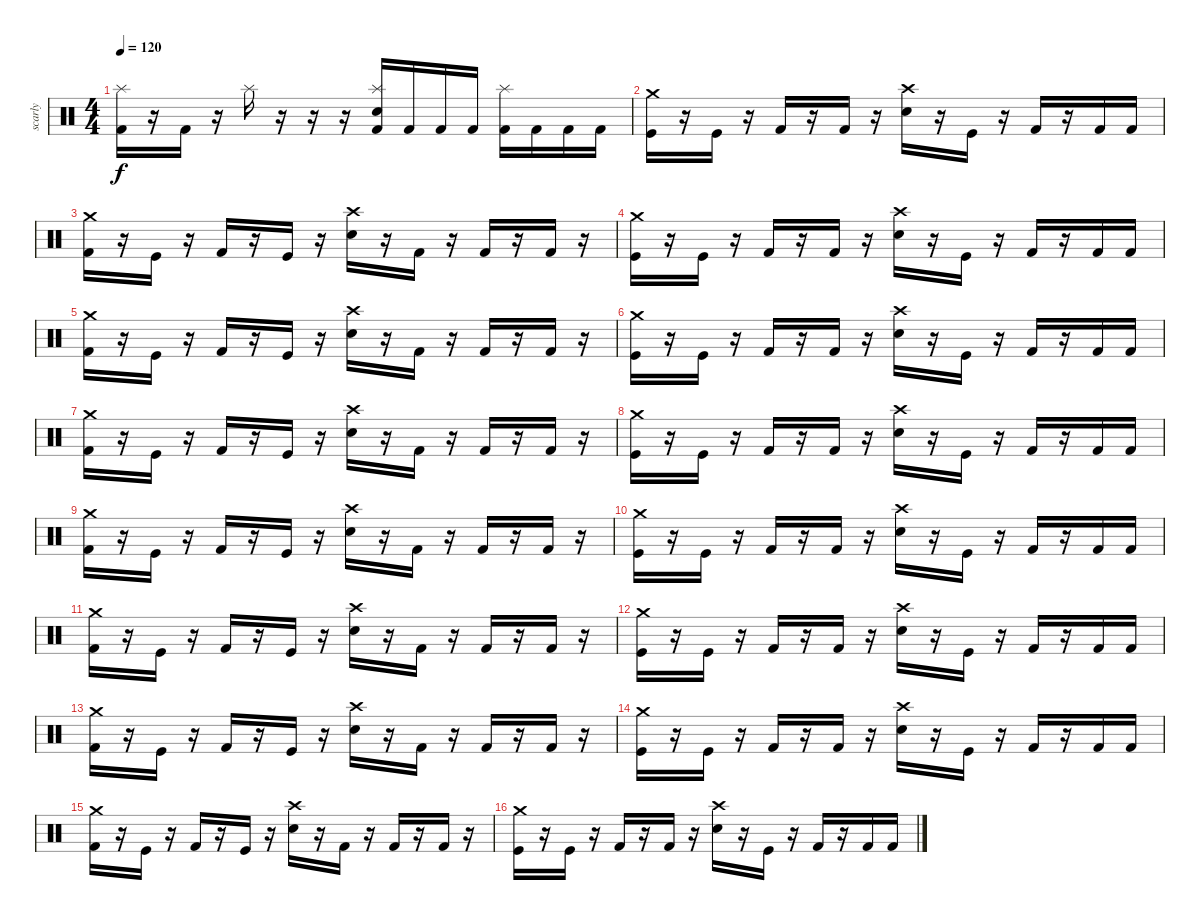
\track ("scarly" "scarly") {instrument percussion}
\staff {score}
\articulation defaults
\ts (4 4)
\tempo 120
\clef neutral
\ks c
("Kick (hit) 2" "Splash (hit)").16{dy f} r.16 "Kick (hit) 2".16 r.16 "Splash (hit)".16 r.16 r.16 r.16 ("Snare (hit) 2" "Kick (hit) 2" "Splash (hit)").16 "Kick (hit) 2".16 "Kick (hit) 2".16 "Kick (hit) 2".16 ("Kick (hit) 2" "Splash (hit)").16 "Kick (hit) 2".16 "Kick (hit) 2".16 "Kick (hit) 2".16 |
("Kick (hit)" "Crash medium (hit)").16 r.16 "Kick (hit)".16 r.16 "Kick (hit) 2".16 r.16 "Kick (hit) 2".16 r.16 ("Snare (hit) 2" "Crash high (hit)").16 r.16 "Kick (hit)".16 r.16 "Kick (hit) 2".16 r.16 "Kick (hit) 2".16 "Kick (hit) 2".16 |
("Kick (hit) 2" "Crash medium (hit)").16 r.16 "Kick (hit)".16 r.16 "Kick (hit) 2".16 r.16 "Kick (hit)".16 r.16 ("Snare (hit) 2" "Crash high (hit)").16 r.16 "Kick (hit) 2".16 r.16 "Kick (hit) 2".16 r.16 "Kick (hit) 2".16 r.16 |
("Kick (hit)" "Crash medium (hit)").16 r.16 "Kick (hit)".16 r.16 "Kick (hit) 2".16 r.16 "Kick (hit) 2".16 r.16 ("Snare (hit) 2" "Crash high (hit)").16 r.16 "Kick (hit)".16 r.16 "Kick (hit) 2".16 r.16 "Kick (hit) 2".16 "Kick (hit) 2".16 |
("Kick (hit) 2" "Crash medium (hit)").16 r.16 "Kick (hit)".16 r.16 "Kick (hit) 2".16 r.16 "Kick (hit)".16 r.16 ("Snare (hit) 2" "Crash high (hit)").16 r.16 "Kick (hit) 2".16 r.16 "Kick (hit) 2".16 r.16 "Kick (hit) 2".16 r.16 |
("Kick (hit)" "Crash medium (hit)").16 r.16 "Kick (hit)".16 r.16 "Kick (hit) 2".16 r.16 "Kick (hit) 2".16 r.16 ("Snare (hit) 2" "Crash high (hit)").16 r.16 "Kick (hit)".16 r.16 "Kick (hit) 2".16 r.16 "Kick (hit) 2".16 "Kick (hit) 2".16 |
("Kick (hit) 2" "Crash medium (hit)").16 r.16 "Kick (hit)".16 r.16 "Kick (hit) 2".16 r.16 "Kick (hit)".16 r.16 ("Snare (hit) 2" "Crash high (hit)").16 r.16 "Kick (hit) 2".16 r.16 "Kick (hit) 2".16 r.16 "Kick (hit) 2".16 r.16 |
("Kick (hit)" "Crash medium (hit)").16 r.16 "Kick (hit)".16 r.16 "Kick (hit) 2".16 r.16 "Kick (hit) 2".16 r.16 ("Snare (hit) 2" "Crash high (hit)").16 r.16 "Kick (hit)".16 r.16 "Kick (hit) 2".16 r.16 "Kick (hit) 2".16 "Kick (hit) 2".16 |
("Kick (hit) 2" "Crash medium (hit)").16 r.16 "Kick (hit)".16 r.16 "Kick (hit) 2".16 r.16 "Kick (hit)".16 r.16 ("Snare (hit) 2" "Crash high (hit)").16 r.16 "Kick (hit) 2".16 r.16 "Kick (hit) 2".16 r.16 "Kick (hit) 2".16 r.16 |
("Kick (hit)" "Crash medium (hit)").16 r.16 "Kick (hit)".16 r.16 "Kick (hit) 2".16 r.16 "Kick (hit) 2".16 r.16 ("Snare (hit) 2" "Crash high (hit)").16 r.16 "Kick (hit)".16 r.16 "Kick (hit) 2".16 r.16 "Kick (hit) 2".16 "Kick (hit) 2".16 |
("Kick (hit) 2" "Crash medium (hit)").16 r.16 "Kick (hit)".16 r.16 "Kick (hit) 2".16 r.16 "Kick (hit)".16 r.16 ("Snare (hit) 2" "Crash high (hit)").16 r.16 "Kick (hit) 2".16 r.16 "Kick (hit) 2".16 r.16 "Kick (hit) 2".16 r.16 |
("Kick (hit)" "Crash medium (hit)").16 r.16 "Kick (hit)".16 r.16 "Kick (hit) 2".16 r.16 "Kick (hit) 2".16 r.16 ("Snare (hit) 2" "Crash high (hit)").16 r.16 "Kick (hit)".16 r.16 "Kick (hit) 2".16 r.16 "Kick (hit) 2".16 "Kick (hit) 2".16 |
("Kick (hit) 2" "Crash medium (hit)").16 r.16 "Kick (hit)".16 r.16 "Kick (hit) 2".16 r.16 "Kick (hit)".16 r.16 ("Snare (hit) 2" "Crash high (hit)").16 r.16 "Kick (hit) 2".16 r.16 "Kick (hit) 2".16 r.16 "Kick (hit) 2".16 r.16 |
("Kick (hit)" "Crash medium (hit)").16 r.16 "Kick (hit)".16 r.16 "Kick (hit) 2".16 r.16 "Kick (hit) 2".16 r.16 ("Snare (hit) 2" "Crash high (hit)").16 r.16 "Kick (hit)".16 r.16 "Kick (hit) 2".16 r.16 "Kick (hit) 2".16 "Kick (hit) 2".16 |
("Kick (hit) 2" "Crash medium (hit)").16 r.16 "Kick (hit)".16 r.16 "Kick (hit) 2".16 r.16 "Kick (hit)".16 r.16 ("Snare (hit) 2" "Crash high (hit)").16 r.16 "Kick (hit) 2".16 r.16 "Kick (hit) 2".16 r.16 "Kick (hit) 2".16 r.16 |
("Kick (hit)" "Crash medium (hit)").16 r.16 "Kick (hit)".16 r.16 "Kick (hit) 2".16 r.16 "Kick (hit) 2".16 r.16 ("Snare (hit) 2" "Crash high (hit)").16 r.16 "Kick (hit)".16 r.16 "Kick (hit) 2".16 r.16 "Kick (hit) 2".16 "Kick (hit) 2".16
